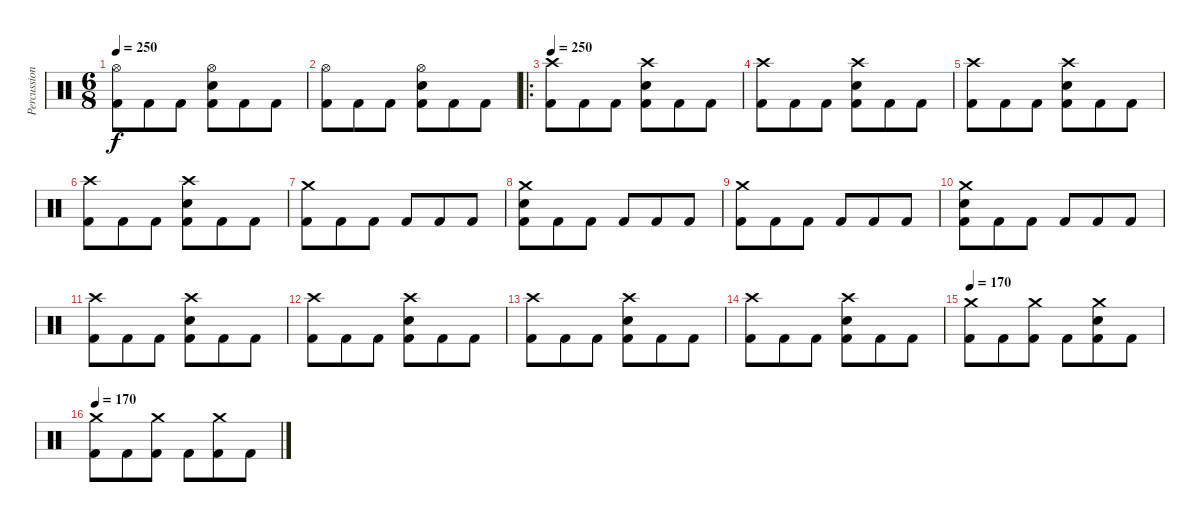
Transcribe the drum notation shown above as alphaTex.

\track ("Percussion" "Percussion") {instrument percussion}
\staff {score}
\articulation defaults
\ts (6 8)
\tempo 250
\clef neutral
\ks c
("Hi-Hat (open)" "Kick (hit) 2").8{dy f} "Kick (hit) 2".8 "Kick (hit) 2".8 ("Hi-Hat (open)" "Electric Snare (hit)" "Kick (hit) 2").8 "Kick (hit) 2".8 "Kick (hit) 2".8 |
("Hi-Hat (open)" "Kick (hit) 2").8 "Kick (hit) 2".8 "Kick (hit) 2".8 ("Hi-Hat (open)" "Electric Snare (hit)" "Kick (hit) 2").8 "Kick (hit) 2".8 "Kick (hit) 2".8 |
\ro
\tempo 250
("Crash high (hit)" "Kick (hit) 2").8 "Kick (hit) 2".8 "Kick (hit) 2".8 ("Crash high (hit)" "Electric Snare (hit)" "Kick (hit) 2").8 "Kick (hit) 2".8 "Kick (hit) 2".8 |
("Crash high (hit)" "Kick (hit) 2").8 "Kick (hit) 2".8 "Kick (hit) 2".8 ("Crash high (hit)" "Electric Snare (hit)" "Kick (hit) 2").8 "Kick (hit) 2".8 "Kick (hit) 2".8 |
("Crash high (hit)" "Kick (hit) 2").8 "Kick (hit) 2".8 "Kick (hit) 2".8 ("Crash high (hit)" "Electric Snare (hit)" "Kick (hit) 2").8 "Kick (hit) 2".8 "Kick (hit) 2".8 |
("Crash high (hit)" "Kick (hit) 2").8 "Kick (hit) 2".8 "Kick (hit) 2".8 ("Crash high (hit)" "Electric Snare (hit)" "Kick (hit) 2").8 "Kick (hit) 2".8 "Kick (hit) 2".8 |
("Crash medium (hit)" "Kick (hit) 2").8 "Kick (hit) 2".8 "Kick (hit) 2".8 "Kick (hit) 2".8 "Kick (hit) 2".8 "Kick (hit) 2".8 |
("Crash medium (hit)" "Electric Snare (hit)" "Kick (hit) 2").8 "Kick (hit) 2".8 "Kick (hit) 2".8 "Kick (hit) 2".8 "Kick (hit) 2".8 "Kick (hit) 2".8 |
("Crash medium (hit)" "Kick (hit) 2").8 "Kick (hit) 2".8 "Kick (hit) 2".8 "Kick (hit) 2".8 "Kick (hit) 2".8 "Kick (hit) 2".8 |
("Crash medium (hit)" "Electric Snare (hit)" "Kick (hit) 2").8 "Kick (hit) 2".8 "Kick (hit) 2".8 "Kick (hit) 2".8 "Kick (hit) 2".8 "Kick (hit) 2".8 |
("Crash high (hit)" "Kick (hit) 2").8 "Kick (hit) 2".8 "Kick (hit) 2".8 ("Crash high (hit)" "Electric Snare (hit)" "Kick (hit) 2").8 "Kick (hit) 2".8 "Kick (hit) 2".8 |
("Crash high (hit)" "Kick (hit) 2").8 "Kick (hit) 2".8 "Kick (hit) 2".8 ("Crash high (hit)" "Electric Snare (hit)" "Kick (hit) 2").8 "Kick (hit) 2".8 "Kick (hit) 2".8 |
("Crash high (hit)" "Kick (hit) 2").8 "Kick (hit) 2".8 "Kick (hit) 2".8 ("Crash high (hit)" "Electric Snare (hit)" "Kick (hit) 2").8 "Kick (hit) 2".8 "Kick (hit) 2".8 |
("Crash high (hit)" "Kick (hit) 2").8 "Kick (hit) 2".8 "Kick (hit) 2".8 ("Crash high (hit)" "Electric Snare (hit)" "Kick (hit) 2").8 "Kick (hit) 2".8 "Kick (hit) 2".8 |
\tempo 170
("Crash medium (hit)" "Kick (hit) 2").8 "Kick (hit) 2".8 ("Crash medium (hit)" "Kick (hit) 2").8 "Kick (hit) 2".8 ("Crash medium (hit)" "Electric Snare (hit)" "Kick (hit) 2").8 "Kick (hit) 2".8 |
\tempo 170
("Crash medium (hit)" "Kick (hit) 2").8 "Kick (hit) 2".8 ("Crash medium (hit)" "Kick (hit) 2").8 "Kick (hit) 2".8 ("Crash medium (hit)" "Kick (hit) 2").8 "Kick (hit) 2".8
